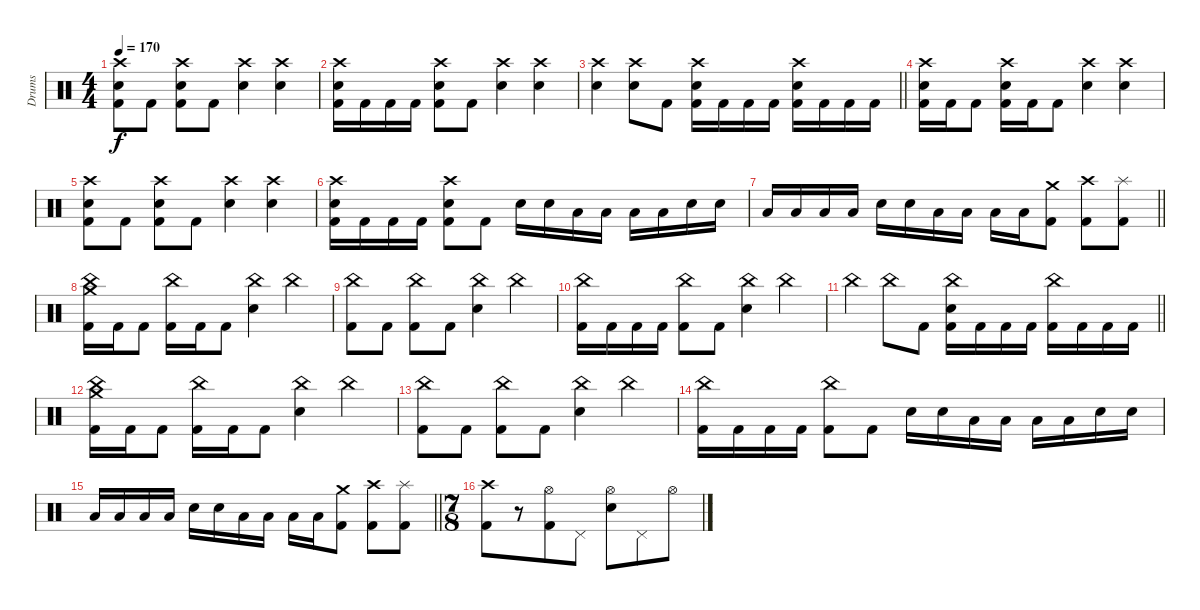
\track ("Drums" "Drums") {instrument percussion}
\staff {score}
\articulation defaults
\ts (4 4)
\tempo 170
\clef neutral
\ks c
("Crash high (hit)" "Electric Snare (hit)" "Kick (hit) 2").8{dy f} "Kick (hit) 2".8 ("Crash high (hit)" "Electric Snare (hit)" "Kick (hit) 2").8 "Kick (hit) 2".8 ("Crash high (hit)" "Electric Snare (hit)").4 ("Crash high (hit)" "Electric Snare (hit)").4 |
("Crash high (hit)" "Electric Snare (hit)" "Kick (hit) 2").16 "Kick (hit) 2".16 "Kick (hit) 2".16 "Kick (hit) 2".16 ("Crash high (hit)" "Electric Snare (hit)" "Kick (hit) 2").8 "Kick (hit) 2".8 ("Crash high (hit)" "Electric Snare (hit)").4 ("Crash high (hit)" "Electric Snare (hit)").4 |
\barLineRight lightlight
("Crash high (hit)" "Electric Snare (hit)").4 ("Crash high (hit)" "Electric Snare (hit)").8 "Kick (hit) 2".8 ("Crash high (hit)" "Electric Snare (hit)" "Kick (hit) 2").16 "Kick (hit) 2".16 "Kick (hit) 2".16 "Kick (hit) 2".16 ("Crash high (hit)" "Electric Snare (hit)" "Kick (hit) 2").16 "Kick (hit) 2".16 "Kick (hit) 2".16 "Kick (hit) 2".16 |
("Crash high (hit)" "Electric Snare (hit)" "Kick (hit) 2").16 "Kick (hit) 2".16 "Kick (hit) 2".8 ("Crash high (hit)" "Electric Snare (hit)" "Kick (hit) 2").16 "Kick (hit) 2".16 "Kick (hit) 2".8 ("Crash high (hit)" "Electric Snare (hit)").4 ("Crash high (hit)" "Electric Snare (hit)").4 |
("Crash high (hit)" "Electric Snare (hit)" "Kick (hit) 2").8 "Kick (hit) 2".8 ("Crash high (hit)" "Electric Snare (hit)" "Kick (hit) 2").8 "Kick (hit) 2".8 ("Crash high (hit)" "Electric Snare (hit)").4 ("Crash high (hit)" "Electric Snare (hit)").4 |
("Crash high (hit)" "Electric Snare (hit)" "Kick (hit) 2").16 "Kick (hit) 2".16 "Kick (hit) 2".16 "Kick (hit) 2".16 ("Crash high (hit)" "Electric Snare (hit)" "Kick (hit) 2").8 "Kick (hit) 2".8 "Electric Snare (hit)".16 "Electric Snare (hit)".16 "Low Tom (hit)".16 "Low Tom (hit)".16 "Low Tom (hit)".16 "Low Tom (hit)".16 "Electric Snare (hit)".16 "Electric Snare (hit)".16 |
\barLineRight lightlight "Low Tom (hit)".16 "Low Tom (hit)".16 "Low Tom (hit)".16 "Low Tom (hit)".16 "Electric Snare (hit)".16 "Electric Snare (hit)".16 "Low Tom (hit)".16 "Low Tom (hit)".16 "Low Tom (hit)".16 "Low Tom (hit)".16
("Crash medium (hit)" "Kick (hit) 2").8 ("Crash high (hit)" "Kick (hit) 2").8 ("Splash (hit)" "Kick (hit) 2").8 |
\section ("" "")
("China (hit)" "Crash medium (hit)" "Kick (hit) 2").16 "Kick (hit) 2".16 "Kick (hit) 2".8 ("China (hit)" "Kick (hit) 2").16 "Kick (hit) 2".16 "Kick (hit) 2".8 ("China (hit)" "Electric Snare (hit)").4 "China (hit)".4 |
("China (hit)" "Kick (hit) 2").8 "Kick (hit) 2".8 ("China (hit)" "Kick (hit) 2").8 "Kick (hit) 2".8 ("China (hit)" "Electric Snare (hit)").4 "China (hit)".4 |
("China (hit)" "Kick (hit) 2").16 "Kick (hit) 2".16 "Kick (hit) 2".16 "Kick (hit) 2".16 ("China (hit)" "Kick (hit) 2").8 "Kick (hit) 2".8 ("China (hit)" "Electric Snare (hit)").4 "China (hit)".4 |
\barLineRight lightlight "China (hit)".4 "China (hit)".8 "Kick (hit) 2".8
("China (hit)" "Electric Snare (hit)" "Kick (hit) 2").16 "Kick (hit) 2".16 "Kick (hit) 2".16 "Kick (hit) 2".16 ("China (hit)" "Kick (hit) 2").16 "Kick (hit) 2".16 "Kick (hit) 2".16 "Kick (hit) 2".16 |
("China (hit)" "Crash medium (hit)" "Kick (hit) 2").16 "Kick (hit) 2".16 "Kick (hit) 2".8 ("China (hit)" "Kick (hit) 2").16 "Kick (hit) 2".16 "Kick (hit) 2".8 ("China (hit)" "Electric Snare (hit)").4 "China (hit)".4 |
("China (hit)" "Kick (hit) 2").8 "Kick (hit) 2".8 ("China (hit)" "Kick (hit) 2").8 "Kick (hit) 2".8 ("China (hit)" "Electric Snare (hit)").4 "China (hit)".4 |
("China (hit)" "Kick (hit) 2").16 "Kick (hit) 2".16 "Kick (hit) 2".16 "Kick (hit) 2".16 ("China (hit)" "Kick (hit) 2").8 "Kick (hit) 2".8 "Electric Snare (hit)".16 "Electric Snare (hit)".16 "Low Tom (hit)".16 "Low Tom (hit)".16 "Low Tom (hit)".16 "Low Tom (hit)".16 "Electric Snare (hit)".16 "Electric Snare (hit)".16 |
\barLineRight lightlight "Low Tom (hit)".16 "Low Tom (hit)".16 "Low Tom (hit)".16 "Low Tom (hit)".16 "Electric Snare (hit)".16 "Electric Snare (hit)".16 "Low Tom (hit)".16 "Low Tom (hit)".16 "Low Tom (hit)".16 "Low Tom (hit)".16
("Crash medium (hit)" "Kick (hit) 2").8 ("Crash high (hit)" "Kick (hit) 2").8 ("Splash (hit)" "Kick (hit) 2").8 |
\ts (7 8)
\section ("" "")
("Crash high (hit)" "Kick (hit) 2").8 r.8 ("Hi-Hat (open)" "Kick (hit) 2").8 "Pedal Hi-Hat (hit)".8 ("Hi-Hat (open)" "Electric Snare (hit)").8 "Pedal Hi-Hat (hit)".8 "Hi-Hat (open)".8
